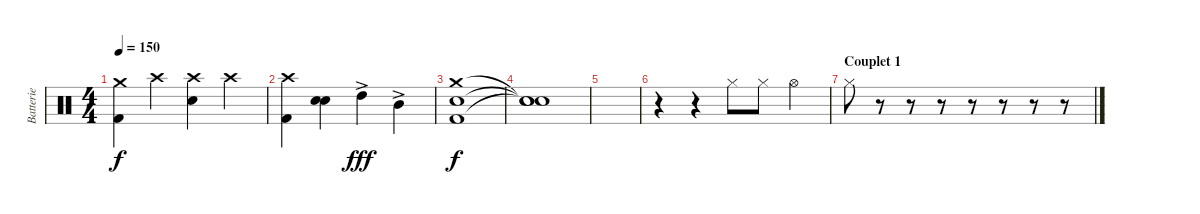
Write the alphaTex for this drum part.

\track ("Batterie" "Batterie") {instrument percussion}
\staff {score}
\articulation defaults
\ts (4 4)
\tempo 150
\clef neutral
\ks c
("Crash medium (hit)" "Kick (hit) 2").4{dy f} "Crash high (hit)".4 ("Crash high (hit)" "Electric Snare (hit)").4 "Crash high (hit)".4 |
("Crash high (hit)" "Kick (hit) 2").4 ("Electric Snare (hit)" "Electric Snare (hit)").4{bu 120} "High Tom (hit)"{ac}.4{dy fff} "Mid Tom (hit)"{ac}.4 |
("Crash medium (hit)" "Electric Snare (hit)" "Kick (hit) 2").1{dy f} |
("Snare (hit)"{t} "Snare (hit)"{t} "Snare (hit)"{t}).1 |
|
r.4 r.4 "Hi-Hat (closed)".8 "Hi-Hat (closed)".8 "Hi-Hat (open)".4 |
\section ("" "Couplet 1")
"Hi-Hat (closed)".8 r.8 r.8 r.8 r.8 r.8 r.8 r.8
